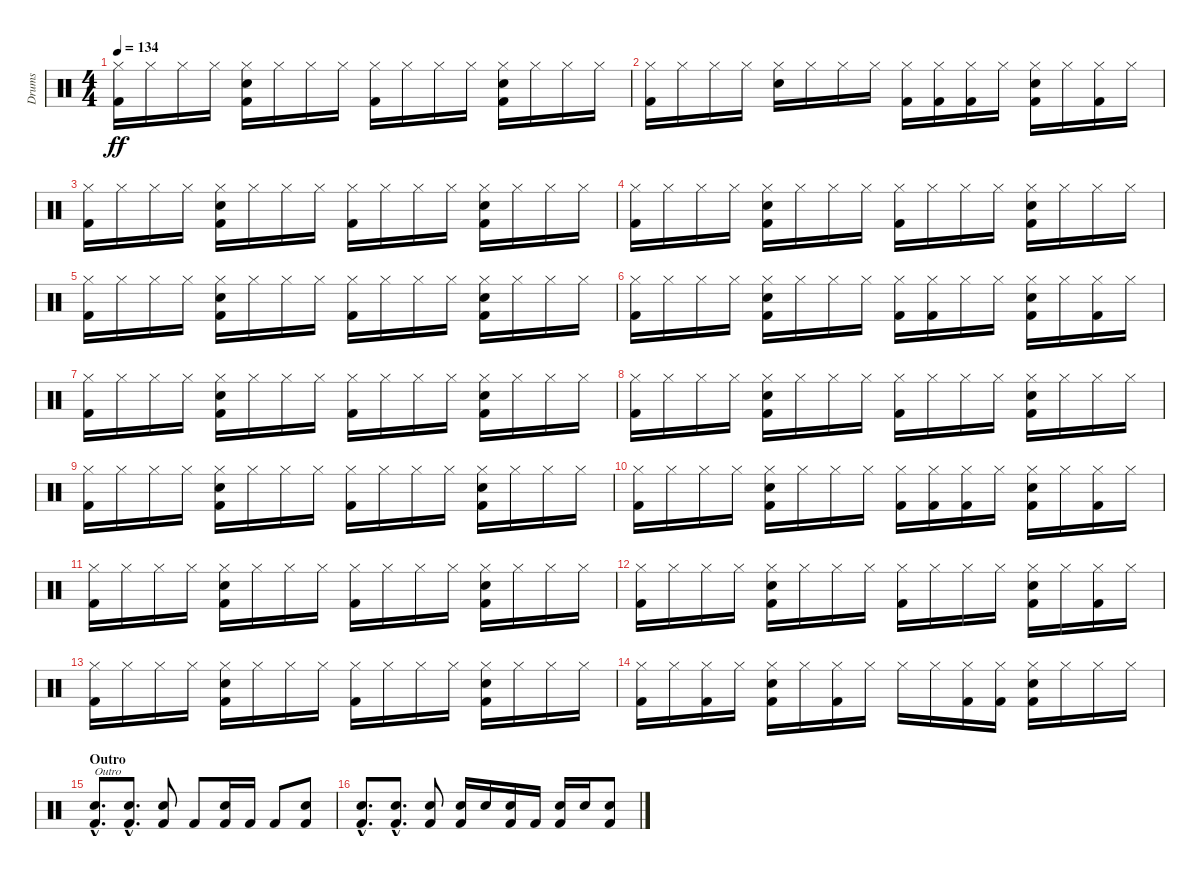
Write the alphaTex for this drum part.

\track ("Drums" "Drums") {instrument percussion}
\staff {score}
\articulation defaults
\ts (4 4)
\tempo 134
\clef neutral
\ks c
("Hi-Hat (closed)" "Kick (hit) 2").16{dy ff} "Hi-Hat (closed)".16 "Hi-Hat (closed)".16 "Hi-Hat (closed)".16 ("Hi-Hat (closed)" "Snare (hit) 2" "Kick (hit) 2").16 "Hi-Hat (closed)".16 "Hi-Hat (closed)".16 "Hi-Hat (closed)".16 ("Hi-Hat (closed)" "Kick (hit) 2").16 "Hi-Hat (closed)".16 "Hi-Hat (closed)".16 "Hi-Hat (closed)".16 ("Hi-Hat (closed)" "Snare (hit) 2" "Kick (hit) 2").16 "Hi-Hat (closed)".16 "Hi-Hat (closed)".16 "Hi-Hat (closed)".16 |
("Hi-Hat (closed)" "Kick (hit) 2").16 "Hi-Hat (closed)".16 "Hi-Hat (closed)".16 "Hi-Hat (closed)".16 ("Hi-Hat (closed)" "Snare (hit) 2").16 "Hi-Hat (closed)".16 "Hi-Hat (closed)".16 "Hi-Hat (closed)".16 ("Hi-Hat (closed)" "Kick (hit) 2").16 ("Hi-Hat (closed)" "Kick (hit) 2").16 ("Hi-Hat (closed)" "Kick (hit) 2").16 "Hi-Hat (closed)".16 ("Hi-Hat (closed)" "Snare (hit) 2" "Kick (hit) 2").16 "Hi-Hat (closed)".16 ("Hi-Hat (closed)" "Kick (hit) 2").16 "Hi-Hat (closed)".16 |
("Hi-Hat (closed)" "Kick (hit) 2").16 "Hi-Hat (closed)".16 "Hi-Hat (closed)".16 "Hi-Hat (closed)".16 ("Hi-Hat (closed)" "Snare (hit) 2" "Kick (hit) 2").16 "Hi-Hat (closed)".16 "Hi-Hat (closed)".16 "Hi-Hat (closed)".16 ("Hi-Hat (closed)" "Kick (hit) 2").16 "Hi-Hat (closed)".16 "Hi-Hat (closed)".16 "Hi-Hat (closed)".16 ("Hi-Hat (closed)" "Snare (hit) 2" "Kick (hit) 2").16 "Hi-Hat (closed)".16 "Hi-Hat (closed)".16 "Hi-Hat (closed)".16 |
("Hi-Hat (closed)" "Kick (hit) 2").16 "Hi-Hat (closed)".16 "Hi-Hat (closed)".16 "Hi-Hat (closed)".16 ("Hi-Hat (closed)" "Snare (hit) 2" "Kick (hit) 2").16 "Hi-Hat (closed)".16 "Hi-Hat (closed)".16 "Hi-Hat (closed)".16 ("Hi-Hat (closed)" "Kick (hit) 2").16 "Hi-Hat (closed)".16 "Hi-Hat (closed)".16 "Hi-Hat (closed)".16 ("Hi-Hat (closed)" "Snare (hit) 2" "Kick (hit) 2").16 "Hi-Hat (closed)".16 "Hi-Hat (closed)".16 "Hi-Hat (closed)".16 |
("Hi-Hat (closed)" "Kick (hit) 2").16 "Hi-Hat (closed)".16 "Hi-Hat (closed)".16 "Hi-Hat (closed)".16 ("Hi-Hat (closed)" "Snare (hit) 2" "Kick (hit) 2").16 "Hi-Hat (closed)".16 "Hi-Hat (closed)".16 "Hi-Hat (closed)".16 ("Hi-Hat (closed)" "Kick (hit) 2").16 "Hi-Hat (closed)".16 "Hi-Hat (closed)".16 "Hi-Hat (closed)".16 ("Hi-Hat (closed)" "Snare (hit) 2" "Kick (hit) 2").16 "Hi-Hat (closed)".16 "Hi-Hat (closed)".16 "Hi-Hat (closed)".16 |
("Hi-Hat (closed)" "Kick (hit) 2").16 "Hi-Hat (closed)".16 "Hi-Hat (closed)".16 "Hi-Hat (closed)".16 ("Hi-Hat (closed)" "Snare (hit) 2" "Kick (hit) 2").16 "Hi-Hat (closed)".16 "Hi-Hat (closed)".16 "Hi-Hat (closed)".16 ("Hi-Hat (closed)" "Kick (hit) 2").16 ("Hi-Hat (closed)" "Kick (hit) 2").16 "Hi-Hat (closed)".16 "Hi-Hat (closed)".16 ("Hi-Hat (closed)" "Snare (hit) 2" "Kick (hit) 2").16 "Hi-Hat (closed)".16 ("Hi-Hat (closed)" "Kick (hit) 2").16 "Hi-Hat (closed)".16 |
("Hi-Hat (closed)" "Kick (hit) 2").16 "Hi-Hat (closed)".16 "Hi-Hat (closed)".16 "Hi-Hat (closed)".16 ("Hi-Hat (closed)" "Snare (hit) 2" "Kick (hit) 2").16 "Hi-Hat (closed)".16 "Hi-Hat (closed)".16 "Hi-Hat (closed)".16 ("Hi-Hat (closed)" "Kick (hit) 2").16 "Hi-Hat (closed)".16 "Hi-Hat (closed)".16 "Hi-Hat (closed)".16 ("Hi-Hat (closed)" "Snare (hit) 2" "Kick (hit) 2").16 "Hi-Hat (closed)".16 "Hi-Hat (closed)".16 "Hi-Hat (closed)".16 |
("Hi-Hat (closed)" "Kick (hit) 2").16 "Hi-Hat (closed)".16 "Hi-Hat (closed)".16 "Hi-Hat (closed)".16 ("Hi-Hat (closed)" "Snare (hit) 2" "Kick (hit) 2").16 "Hi-Hat (closed)".16 "Hi-Hat (closed)".16 "Hi-Hat (closed)".16 ("Hi-Hat (closed)" "Kick (hit) 2").16 "Hi-Hat (closed)".16 "Hi-Hat (closed)".16 "Hi-Hat (closed)".16 ("Hi-Hat (closed)" "Snare (hit) 2" "Kick (hit) 2").16 "Hi-Hat (closed)".16 "Hi-Hat (closed)".16 "Hi-Hat (closed)".16 |
("Hi-Hat (closed)" "Kick (hit) 2").16 "Hi-Hat (closed)".16 "Hi-Hat (closed)".16 "Hi-Hat (closed)".16 ("Hi-Hat (closed)" "Snare (hit) 2" "Kick (hit) 2").16 "Hi-Hat (closed)".16 "Hi-Hat (closed)".16 "Hi-Hat (closed)".16 ("Hi-Hat (closed)" "Kick (hit) 2").16 "Hi-Hat (closed)".16 "Hi-Hat (closed)".16 "Hi-Hat (closed)".16 ("Hi-Hat (closed)" "Snare (hit) 2" "Kick (hit) 2").16 "Hi-Hat (closed)".16 "Hi-Hat (closed)".16 "Hi-Hat (closed)".16 |
("Hi-Hat (closed)" "Kick (hit) 2").16 "Hi-Hat (closed)".16 "Hi-Hat (closed)".16 "Hi-Hat (closed)".16 ("Hi-Hat (closed)" "Snare (hit) 2" "Kick (hit) 2").16 "Hi-Hat (closed)".16 "Hi-Hat (closed)".16 "Hi-Hat (closed)".16 ("Hi-Hat (closed)" "Kick (hit) 2").16 ("Hi-Hat (closed)" "Kick (hit) 2").16 ("Hi-Hat (closed)" "Kick (hit) 2").16 "Hi-Hat (closed)".16 ("Hi-Hat (closed)" "Snare (hit) 2" "Kick (hit) 2").16 "Hi-Hat (closed)".16 ("Hi-Hat (closed)" "Kick (hit) 2").16 "Hi-Hat (closed)".16 |
("Hi-Hat (closed)" "Kick (hit) 2").16 "Hi-Hat (closed)".16 "Hi-Hat (closed)".16 "Hi-Hat (closed)".16 ("Hi-Hat (closed)" "Snare (hit) 2" "Kick (hit) 2").16 "Hi-Hat (closed)".16 "Hi-Hat (closed)".16 "Hi-Hat (closed)".16 ("Hi-Hat (closed)" "Kick (hit) 2").16 "Hi-Hat (closed)".16 "Hi-Hat (closed)".16 "Hi-Hat (closed)".16 ("Hi-Hat (closed)" "Snare (hit) 2" "Kick (hit) 2").16 "Hi-Hat (closed)".16 "Hi-Hat (closed)".16 "Hi-Hat (closed)".16 |
("Hi-Hat (closed)" "Kick (hit) 2").16 "Hi-Hat (closed)".16 "Hi-Hat (closed)".16 "Hi-Hat (closed)".16 ("Hi-Hat (closed)" "Snare (hit) 2" "Kick (hit) 2").16 "Hi-Hat (closed)".16 "Hi-Hat (closed)".16 "Hi-Hat (closed)".16 ("Hi-Hat (closed)" "Kick (hit) 2").16 "Hi-Hat (closed)".16 "Hi-Hat (closed)".16 "Hi-Hat (closed)".16 ("Hi-Hat (closed)" "Snare (hit) 2" "Kick (hit) 2").16 "Hi-Hat (closed)".16 ("Hi-Hat (closed)" "Kick (hit) 2").16 "Hi-Hat (closed)".16 |
("Hi-Hat (closed)" "Kick (hit) 2").16 "Hi-Hat (closed)".16 "Hi-Hat (closed)".16 "Hi-Hat (closed)".16 ("Hi-Hat (closed)" "Snare (hit) 2" "Kick (hit) 2").16 "Hi-Hat (closed)".16 "Hi-Hat (closed)".16 "Hi-Hat (closed)".16 ("Hi-Hat (closed)" "Kick (hit) 2").16 "Hi-Hat (closed)".16 "Hi-Hat (closed)".16 "Hi-Hat (closed)".16 ("Hi-Hat (closed)" "Snare (hit) 2" "Kick (hit) 2").16 "Hi-Hat (closed)".16 "Hi-Hat (closed)".16 "Hi-Hat (closed)".16 |
("Hi-Hat (closed)" "Kick (hit) 2").16 "Hi-Hat (closed)".16 ("Hi-Hat (closed)" "Kick (hit) 2").16 "Hi-Hat (closed)".16 ("Hi-Hat (closed)" "Snare (hit) 2" "Kick (hit) 2").16 "Hi-Hat (closed)".16 ("Hi-Hat (closed)" "Kick (hit) 2").16 "Hi-Hat (closed)".16 "Hi-Hat (closed)".16 "Hi-Hat (closed)".16 ("Hi-Hat (closed)" "Kick (hit) 2").16 ("Hi-Hat (closed)" "Kick (hit) 2").16 ("Hi-Hat (closed)" "Snare (hit) 2" "Kick (hit) 2").16 "Hi-Hat (closed)".16 "Hi-Hat (closed)".16 "Hi-Hat (closed)".16 |
\section ("" "Outro")
("Snare (hit) 2"{hac} "Kick (hit) 2"{hac}).8{d txt "Outro"} ("Snare (hit) 2"{hac} "Kick (hit) 2"{hac}).8{d} ("Snare (hit) 2" "Kick (hit) 2").8 "Kick (hit) 2".8 ("Snare (hit) 2" "Kick (hit) 2").16 "Kick (hit) 2".16 "Kick (hit) 2".8 ("Snare (hit) 2" "Kick (hit) 2").8 |
("Snare (hit) 2"{hac} "Kick (hit) 2"{hac}).8{d} ("Snare (hit) 2"{hac} "Kick (hit) 2"{hac}).8{d} ("Snare (hit) 2" "Kick (hit) 2").8 ("Snare (hit) 2" "Kick (hit) 2").16 "Snare (hit) 2".16 ("Snare (hit) 2" "Kick (hit) 2").16 "Kick (hit) 2".16 ("Snare (hit) 2" "Kick (hit) 2").16 "Snare (hit) 2".16 ("Snare (hit) 2" "Kick (hit) 2").8
